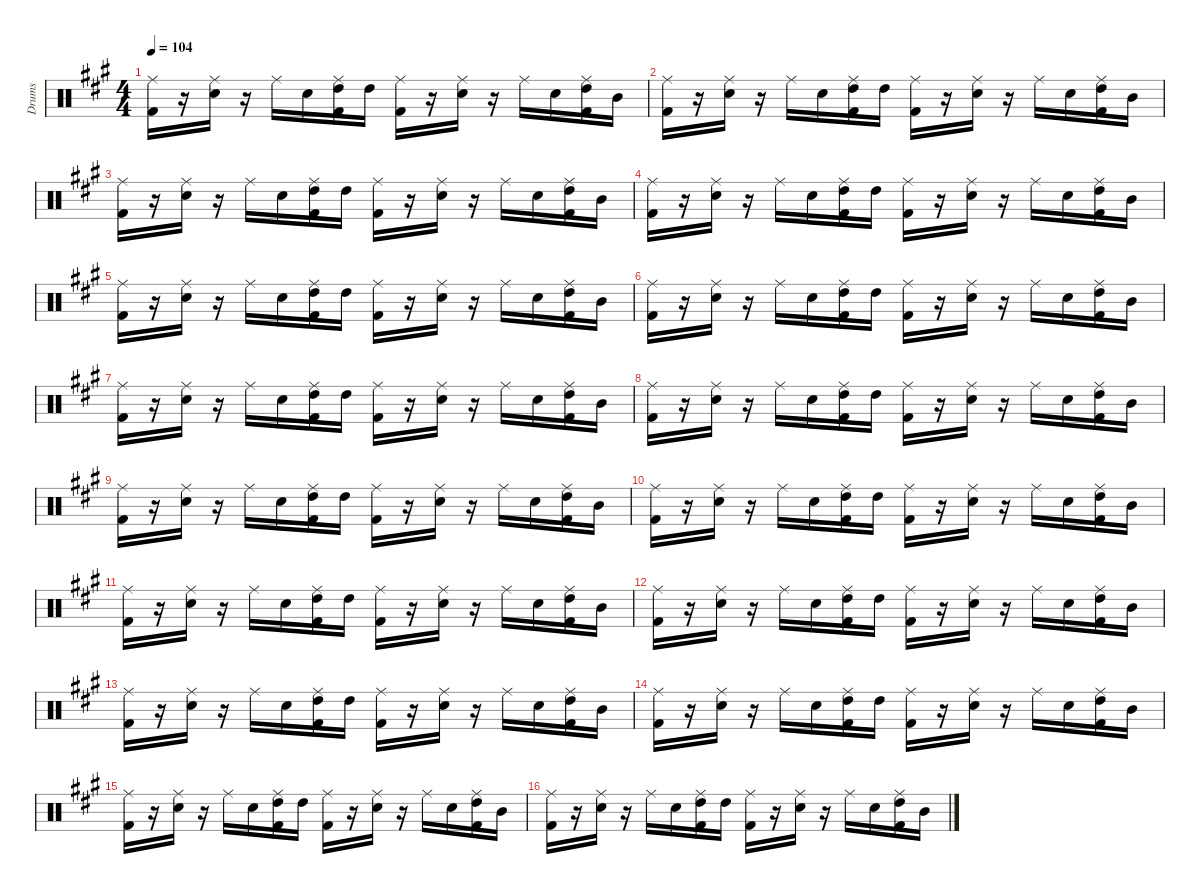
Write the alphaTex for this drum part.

\hideDynamics
\bracketExtendMode nobrackets
\otherSystemsTrackNameOrientation horizontal
\track ("Drumkit" "Drums") {instrument percussion}
\staff {score}
\articulation defaults
\ts (4 4)
\tempo 104
\clef neutral
\ks a
("Ride (middle)"{acc forcenatural} "Kick (hit) 2"{acc forcenatural}).16{dy f beam Down} r.16{beam Down} ("Ride (middle)"{acc forcenatural} "Snare (hit) 2"{acc forcenatural}).16{beam Down} r.16{beam Down} "Ride (middle)"{acc forcenatural}.16{beam Down} "Snare (hit) 2"{acc forcenatural}.16{beam Down} ("Ride (middle)"{acc forcenatural} "High Tom (hit)"{acc forcenatural} "Kick (hit) 2"{acc forcenatural}).16{beam Down} "High Tom (hit)"{acc forcenatural}.16{beam Down} ("Ride (middle)"{acc forcenatural} "Kick (hit) 2"{acc forcenatural}).16{beam Down} r.16{beam Down} ("Ride (middle)"{acc forcenatural} "Snare (hit) 2"{acc forcenatural}).16{beam Down} r.16{beam Down} "Ride (middle)"{acc forcenatural}.16{beam Down} "Snare (hit) 2"{acc forcenatural}.16{beam Down} ("Ride (middle)"{acc forcenatural} "High Tom (hit)"{acc forcenatural} "Kick (hit) 2"{acc forcenatural}).16{beam Down} "Mid Tom (hit)"{acc forcenatural}.16{beam Down} |
("Ride (middle)"{acc forcenatural} "Kick (hit) 2"{acc forcenatural}).16{beam Down} r.16{beam Down} ("Ride (middle)"{acc forcenatural} "Snare (hit) 2"{acc forcenatural}).16{beam Down} r.16{beam Down} "Ride (middle)"{acc forcenatural}.16{beam Down} "Snare (hit) 2"{acc forcenatural}.16{beam Down} ("Ride (middle)"{acc forcenatural} "High Tom (hit)"{acc forcenatural} "Kick (hit) 2"{acc forcenatural}).16{beam Down} "High Tom (hit)"{acc forcenatural}.16{beam Down} ("Ride (middle)"{acc forcenatural} "Kick (hit) 2"{acc forcenatural}).16{beam Down} r.16{beam Down} ("Ride (middle)"{acc forcenatural} "Snare (hit) 2"{acc forcenatural}).16{beam Down} r.16{beam Down} "Ride (middle)"{acc forcenatural}.16{beam Down} "Snare (hit) 2"{acc forcenatural}.16{beam Down} ("Ride (middle)"{acc forcenatural} "High Tom (hit)"{acc forcenatural} "Kick (hit) 2"{acc forcenatural}).16{beam Down} "Mid Tom (hit)"{acc forcenatural}.16{beam Down} |
("Ride (middle)"{acc forcenatural} "Kick (hit) 2"{acc forcenatural}).16{beam Down} r.16{beam Down} ("Ride (middle)"{acc forcenatural} "Snare (hit) 2"{acc forcenatural}).16{beam Down} r.16{beam Down} "Ride (middle)"{acc forcenatural}.16{beam Down} "Snare (hit) 2"{acc forcenatural}.16{beam Down} ("Ride (middle)"{acc forcenatural} "High Tom (hit)"{acc forcenatural} "Kick (hit) 2"{acc forcenatural}).16{beam Down} "High Tom (hit)"{acc forcenatural}.16{beam Down} ("Ride (middle)"{acc forcenatural} "Kick (hit) 2"{acc forcenatural}).16{beam Down} r.16{beam Down} ("Ride (middle)"{acc forcenatural} "Snare (hit) 2"{acc forcenatural}).16{beam Down} r.16{beam Down} "Ride (middle)"{acc forcenatural}.16{beam Down} "Snare (hit) 2"{acc forcenatural}.16{beam Down} ("Ride (middle)"{acc forcenatural} "High Tom (hit)"{acc forcenatural} "Kick (hit) 2"{acc forcenatural}).16{beam Down} "Mid Tom (hit)"{acc forcenatural}.16{beam Down} |
("Ride (middle)"{acc forcenatural} "Kick (hit) 2"{acc forcenatural}).16{beam Down} r.16{beam Down} ("Ride (middle)"{acc forcenatural} "Snare (hit) 2"{acc forcenatural}).16{beam Down} r.16{beam Down} "Ride (middle)"{acc forcenatural}.16{beam Down} "Snare (hit) 2"{acc forcenatural}.16{beam Down} ("Ride (middle)"{acc forcenatural} "High Tom (hit)"{acc forcenatural} "Kick (hit) 2"{acc forcenatural}).16{beam Down} "High Tom (hit)"{acc forcenatural}.16{beam Down} ("Ride (middle)"{acc forcenatural} "Kick (hit) 2"{acc forcenatural}).16{beam Down} r.16{beam Down} ("Ride (middle)"{acc forcenatural} "Snare (hit) 2"{acc forcenatural}).16{beam Down} r.16{beam Down} "Ride (middle)"{acc forcenatural}.16{beam Down} "Snare (hit) 2"{acc forcenatural}.16{beam Down} ("Ride (middle)"{acc forcenatural} "High Tom (hit)"{acc forcenatural} "Kick (hit) 2"{acc forcenatural}).16{beam Down} "Mid Tom (hit)"{acc forcenatural}.16{beam Down} |
("Ride (middle)"{acc forcenatural} "Kick (hit) 2"{acc forcenatural}).16{beam Down} r.16{beam Down} ("Ride (middle)"{acc forcenatural} "Snare (hit) 2"{acc forcenatural}).16{beam Down} r.16{beam Down} "Ride (middle)"{acc forcenatural}.16{beam Down} "Snare (hit) 2"{acc forcenatural}.16{beam Down} ("Ride (middle)"{acc forcenatural} "High Tom (hit)"{acc forcenatural} "Kick (hit) 2"{acc forcenatural}).16{beam Down} "High Tom (hit)"{acc forcenatural}.16{beam Down} ("Ride (middle)"{acc forcenatural} "Kick (hit) 2"{acc forcenatural}).16{beam Down} r.16{beam Down} ("Ride (middle)"{acc forcenatural} "Snare (hit) 2"{acc forcenatural}).16{beam Down} r.16{beam Down} "Ride (middle)"{acc forcenatural}.16{beam Down} "Snare (hit) 2"{acc forcenatural}.16{beam Down} ("Ride (middle)"{acc forcenatural} "High Tom (hit)"{acc forcenatural} "Kick (hit) 2"{acc forcenatural}).16{beam Down} "Mid Tom (hit)"{acc forcenatural}.16{beam Down} |
("Ride (middle)"{acc forcenatural} "Kick (hit) 2"{acc forcenatural}).16{beam Down} r.16{beam Down} ("Ride (middle)"{acc forcenatural} "Snare (hit) 2"{acc forcenatural}).16{beam Down} r.16{beam Down} "Ride (middle)"{acc forcenatural}.16{beam Down} "Snare (hit) 2"{acc forcenatural}.16{beam Down} ("Ride (middle)"{acc forcenatural} "High Tom (hit)"{acc forcenatural} "Kick (hit) 2"{acc forcenatural}).16{beam Down} "High Tom (hit)"{acc forcenatural}.16{beam Down} ("Ride (middle)"{acc forcenatural} "Kick (hit) 2"{acc forcenatural}).16{beam Down} r.16{beam Down} ("Ride (middle)"{acc forcenatural} "Snare (hit) 2"{acc forcenatural}).16{beam Down} r.16{beam Down} "Ride (middle)"{acc forcenatural}.16{beam Down} "Snare (hit) 2"{acc forcenatural}.16{beam Down} ("Ride (middle)"{acc forcenatural} "High Tom (hit)"{acc forcenatural} "Kick (hit) 2"{acc forcenatural}).16{beam Down} "Mid Tom (hit)"{acc forcenatural}.16{beam Down} |
("Ride (middle)"{acc forcenatural} "Kick (hit) 2"{acc forcenatural}).16{beam Down} r.16{beam Down} ("Ride (middle)"{acc forcenatural} "Snare (hit) 2"{acc forcenatural}).16{beam Down} r.16{beam Down} "Ride (middle)"{acc forcenatural}.16{beam Down} "Snare (hit) 2"{acc forcenatural}.16{beam Down} ("Ride (middle)"{acc forcenatural} "High Tom (hit)"{acc forcenatural} "Kick (hit) 2"{acc forcenatural}).16{beam Down} "High Tom (hit)"{acc forcenatural}.16{beam Down} ("Ride (middle)"{acc forcenatural} "Kick (hit) 2"{acc forcenatural}).16{beam Down} r.16{beam Down} ("Ride (middle)"{acc forcenatural} "Snare (hit) 2"{acc forcenatural}).16{beam Down} r.16{beam Down} "Ride (middle)"{acc forcenatural}.16{beam Down} "Snare (hit) 2"{acc forcenatural}.16{beam Down} ("Ride (middle)"{acc forcenatural} "High Tom (hit)"{acc forcenatural} "Kick (hit) 2"{acc forcenatural}).16{beam Down} "Mid Tom (hit)"{acc forcenatural}.16{beam Down} |
("Ride (middle)"{acc forcenatural} "Kick (hit) 2"{acc forcenatural}).16{beam Down} r.16{beam Down} ("Ride (middle)"{acc forcenatural} "Snare (hit) 2"{acc forcenatural}).16{beam Down} r.16{beam Down} "Ride (middle)"{acc forcenatural}.16{beam Down} "Snare (hit) 2"{acc forcenatural}.16{beam Down} ("Ride (middle)"{acc forcenatural} "High Tom (hit)"{acc forcenatural} "Kick (hit) 2"{acc forcenatural}).16{beam Down} "High Tom (hit)"{acc forcenatural}.16{beam Down} ("Ride (middle)"{acc forcenatural} "Kick (hit) 2"{acc forcenatural}).16{beam Down} r.16{beam Down} ("Ride (middle)"{acc forcenatural} "Snare (hit) 2"{acc forcenatural}).16{beam Down} r.16{beam Down} "Ride (middle)"{acc forcenatural}.16{beam Down} "Snare (hit) 2"{acc forcenatural}.16{beam Down} ("Ride (middle)"{acc forcenatural} "High Tom (hit)"{acc forcenatural} "Kick (hit) 2"{acc forcenatural}).16{beam Down} "Mid Tom (hit)"{acc forcenatural}.16{beam Down} |
("Ride (middle)"{acc forcenatural} "Kick (hit) 2"{acc forcenatural}).16{beam Down} r.16{beam Down} ("Ride (middle)"{acc forcenatural} "Snare (hit) 2"{acc forcenatural}).16{beam Down} r.16{beam Down} "Ride (middle)"{acc forcenatural}.16{beam Down} "Snare (hit) 2"{acc forcenatural}.16{beam Down} ("Ride (middle)"{acc forcenatural} "High Tom (hit)"{acc forcenatural} "Kick (hit) 2"{acc forcenatural}).16{beam Down} "High Tom (hit)"{acc forcenatural}.16{beam Down} ("Ride (middle)"{acc forcenatural} "Kick (hit) 2"{acc forcenatural}).16{beam Down} r.16{beam Down} ("Ride (middle)"{acc forcenatural} "Snare (hit) 2"{acc forcenatural}).16{beam Down} r.16{beam Down} "Ride (middle)"{acc forcenatural}.16{beam Down} "Snare (hit) 2"{acc forcenatural}.16{beam Down} ("Ride (middle)"{acc forcenatural} "High Tom (hit)"{acc forcenatural} "Kick (hit) 2"{acc forcenatural}).16{beam Down} "Mid Tom (hit)"{acc forcenatural}.16{beam Down} |
("Ride (middle)"{acc forcenatural} "Kick (hit) 2"{acc forcenatural}).16{beam Down} r.16{beam Down} ("Ride (middle)"{acc forcenatural} "Snare (hit) 2"{acc forcenatural}).16{beam Down} r.16{beam Down} "Ride (middle)"{acc forcenatural}.16{beam Down} "Snare (hit) 2"{acc forcenatural}.16{beam Down} ("Ride (middle)"{acc forcenatural} "High Tom (hit)"{acc forcenatural} "Kick (hit) 2"{acc forcenatural}).16{beam Down} "High Tom (hit)"{acc forcenatural}.16{beam Down} ("Ride (middle)"{acc forcenatural} "Kick (hit) 2"{acc forcenatural}).16{beam Down} r.16{beam Down} ("Ride (middle)"{acc forcenatural} "Snare (hit) 2"{acc forcenatural}).16{beam Down} r.16{beam Down} "Ride (middle)"{acc forcenatural}.16{beam Down} "Snare (hit) 2"{acc forcenatural}.16{beam Down} ("Ride (middle)"{acc forcenatural} "High Tom (hit)"{acc forcenatural} "Kick (hit) 2"{acc forcenatural}).16{beam Down} "Mid Tom (hit)"{acc forcenatural}.16{beam Down} |
("Ride (middle)"{acc forcenatural} "Kick (hit) 2"{acc forcenatural}).16{beam Down} r.16{beam Down} ("Ride (middle)"{acc forcenatural} "Snare (hit) 2"{acc forcenatural}).16{beam Down} r.16{beam Down} "Ride (middle)"{acc forcenatural}.16{beam Down} "Snare (hit) 2"{acc forcenatural}.16{beam Down} ("Ride (middle)"{acc forcenatural} "High Tom (hit)"{acc forcenatural} "Kick (hit) 2"{acc forcenatural}).16{beam Down} "High Tom (hit)"{acc forcenatural}.16{beam Down} ("Ride (middle)"{acc forcenatural} "Kick (hit) 2"{acc forcenatural}).16{beam Down} r.16{beam Down} ("Ride (middle)"{acc forcenatural} "Snare (hit) 2"{acc forcenatural}).16{beam Down} r.16{beam Down} "Ride (middle)"{acc forcenatural}.16{beam Down} "Snare (hit) 2"{acc forcenatural}.16{beam Down} ("Ride (middle)"{acc forcenatural} "High Tom (hit)"{acc forcenatural} "Kick (hit) 2"{acc forcenatural}).16{beam Down} "Mid Tom (hit)"{acc forcenatural}.16{beam Down} |
("Ride (middle)"{acc forcenatural} "Kick (hit) 2"{acc forcenatural}).16{beam Down} r.16{beam Down} ("Ride (middle)"{acc forcenatural} "Snare (hit) 2"{acc forcenatural}).16{beam Down} r.16{beam Down} "Ride (middle)"{acc forcenatural}.16{beam Down} "Snare (hit) 2"{acc forcenatural}.16{beam Down} ("Ride (middle)"{acc forcenatural} "High Tom (hit)"{acc forcenatural} "Kick (hit) 2"{acc forcenatural}).16{beam Down} "High Tom (hit)"{acc forcenatural}.16{beam Down} ("Ride (middle)"{acc forcenatural} "Kick (hit) 2"{acc forcenatural}).16{beam Down} r.16{beam Down} ("Ride (middle)"{acc forcenatural} "Snare (hit) 2"{acc forcenatural}).16{beam Down} r.16{beam Down} "Ride (middle)"{acc forcenatural}.16{beam Down} "Snare (hit) 2"{acc forcenatural}.16{beam Down} ("Ride (middle)"{acc forcenatural} "High Tom (hit)"{acc forcenatural} "Kick (hit) 2"{acc forcenatural}).16{beam Down} "Mid Tom (hit)"{acc forcenatural}.16{beam Down} |
("Ride (middle)"{acc forcenatural} "Kick (hit) 2"{acc forcenatural}).16{beam Down} r.16{beam Down} ("Ride (middle)"{acc forcenatural} "Snare (hit) 2"{acc forcenatural}).16{beam Down} r.16{beam Down} "Ride (middle)"{acc forcenatural}.16{beam Down} "Snare (hit) 2"{acc forcenatural}.16{beam Down} ("Ride (middle)"{acc forcenatural} "High Tom (hit)"{acc forcenatural} "Kick (hit) 2"{acc forcenatural}).16{beam Down} "High Tom (hit)"{acc forcenatural}.16{beam Down} ("Ride (middle)"{acc forcenatural} "Kick (hit) 2"{acc forcenatural}).16{beam Down} r.16{beam Down} ("Ride (middle)"{acc forcenatural} "Snare (hit) 2"{acc forcenatural}).16{beam Down} r.16{beam Down} "Ride (middle)"{acc forcenatural}.16{beam Down} "Snare (hit) 2"{acc forcenatural}.16{beam Down} ("Ride (middle)"{acc forcenatural} "High Tom (hit)"{acc forcenatural} "Kick (hit) 2"{acc forcenatural}).16{beam Down} "Mid Tom (hit)"{acc forcenatural}.16{beam Down} |
("Ride (middle)"{acc forcenatural} "Kick (hit) 2"{acc forcenatural}).16{beam Down} r.16{beam Down} ("Ride (middle)"{acc forcenatural} "Snare (hit) 2"{acc forcenatural}).16{beam Down} r.16{beam Down} "Ride (middle)"{acc forcenatural}.16{beam Down} "Snare (hit) 2"{acc forcenatural}.16{beam Down} ("Ride (middle)"{acc forcenatural} "High Tom (hit)"{acc forcenatural} "Kick (hit) 2"{acc forcenatural}).16{beam Down} "High Tom (hit)"{acc forcenatural}.16{beam Down} ("Ride (middle)"{acc forcenatural} "Kick (hit) 2"{acc forcenatural}).16{beam Down} r.16{beam Down} ("Ride (middle)"{acc forcenatural} "Snare (hit) 2"{acc forcenatural}).16{beam Down} r.16{beam Down} "Ride (middle)"{acc forcenatural}.16{beam Down} "Snare (hit) 2"{acc forcenatural}.16{beam Down} ("Ride (middle)"{acc forcenatural} "High Tom (hit)"{acc forcenatural} "Kick (hit) 2"{acc forcenatural}).16{beam Down} "Mid Tom (hit)"{acc forcenatural}.16{beam Down} |
("Ride (middle)"{acc forcenatural} "Kick (hit) 2"{acc forcenatural}).16{beam Down} r.16{beam Down} ("Ride (middle)"{acc forcenatural} "Snare (hit) 2"{acc forcenatural}).16{beam Down} r.16{beam Down} "Ride (middle)"{acc forcenatural}.16{beam Down} "Snare (hit) 2"{acc forcenatural}.16{beam Down} ("Ride (middle)"{acc forcenatural} "High Tom (hit)"{acc forcenatural} "Kick (hit) 2"{acc forcenatural}).16{beam Down} "High Tom (hit)"{acc forcenatural}.16{beam Down} ("Ride (middle)"{acc forcenatural} "Kick (hit) 2"{acc forcenatural}).16{beam Down} r.16{beam Down} ("Ride (middle)"{acc forcenatural} "Snare (hit) 2"{acc forcenatural}).16{beam Down} r.16{beam Down} "Ride (middle)"{acc forcenatural}.16{beam Down} "Snare (hit) 2"{acc forcenatural}.16{beam Down} ("Ride (middle)"{acc forcenatural} "High Tom (hit)"{acc forcenatural} "Kick (hit) 2"{acc forcenatural}).16{beam Down} "Mid Tom (hit)"{acc forcenatural}.16{beam Down} |
("Ride (middle)"{acc forcenatural} "Kick (hit) 2"{acc forcenatural}).16{beam Down} r.16{beam Down} ("Ride (middle)"{acc forcenatural} "Snare (hit) 2"{acc forcenatural}).16{beam Down} r.16{beam Down} "Ride (middle)"{acc forcenatural}.16{beam Down} "Snare (hit) 2"{acc forcenatural}.16{beam Down} ("Ride (middle)"{acc forcenatural} "High Tom (hit)"{acc forcenatural} "Kick (hit) 2"{acc forcenatural}).16{beam Down} "High Tom (hit)"{acc forcenatural}.16{beam Down} ("Ride (middle)"{acc forcenatural} "Kick (hit) 2"{acc forcenatural}).16{beam Down} r.16{beam Down} ("Ride (middle)"{acc forcenatural} "Snare (hit) 2"{acc forcenatural}).16{beam Down} r.16{beam Down} "Ride (middle)"{acc forcenatural}.16{beam Down} "Snare (hit) 2"{acc forcenatural}.16{beam Down} ("Ride (middle)"{acc forcenatural} "High Tom (hit)"{acc forcenatural} "Kick (hit) 2"{acc forcenatural}).16{beam Down} "Mid Tom (hit)"{acc forcenatural}.16{beam Down}
